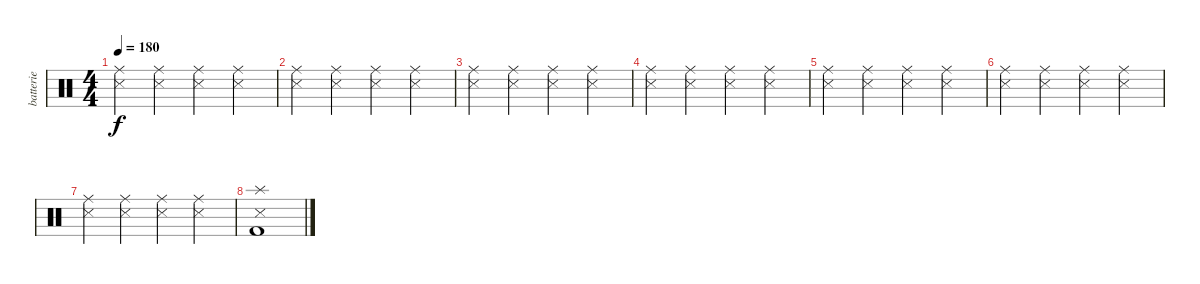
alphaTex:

\track ("batterie" "batterie") {instrument percussion}
\staff {score}
\articulation defaults
\ts (4 4)
\tempo 180
\clef neutral
\ks c
("Ride (middle)" "Snare (side stick) 3").4{dy f} ("Ride (middle)" "Snare (side stick) 3").4 ("Ride (middle)" "Snare (side stick) 3").4 ("Ride (middle)" "Snare (side stick) 3").4 |
("Ride (middle)" "Snare (side stick) 3").4 ("Ride (middle)" "Snare (side stick) 3").4 ("Ride (middle)" "Snare (side stick) 3").4 ("Ride (middle)" "Snare (side stick) 3").4 |
("Ride (middle)" "Snare (side stick) 3").4 ("Ride (middle)" "Snare (side stick) 3").4 ("Ride (middle)" "Snare (side stick) 3").4 ("Ride (middle)" "Snare (side stick) 3").4 |
("Ride (middle)" "Snare (side stick) 3").4 ("Ride (middle)" "Snare (side stick) 3").4 ("Ride (middle)" "Snare (side stick) 3").4 ("Ride (middle)" "Snare (side stick) 3").4 |
("Ride (middle)" "Snare (side stick) 3").4 ("Ride (middle)" "Snare (side stick) 3").4 ("Ride (middle)" "Snare (side stick) 3").4 ("Ride (middle)" "Snare (side stick) 3").4 |
("Ride (middle)" "Snare (side stick) 3").4 ("Ride (middle)" "Snare (side stick) 3").4 ("Ride (middle)" "Snare (side stick) 3").4 ("Ride (middle)" "Snare (side stick) 3").4 |
("Ride (middle)" "Snare (side stick) 3").4 ("Ride (middle)" "Snare (side stick) 3").4 ("Ride (middle)" "Snare (side stick) 3").4 ("Ride (middle)" "Snare (side stick) 3").4 |
("Splash (hit)" "Snare (side stick) 3" "Kick (hit) 2").1
